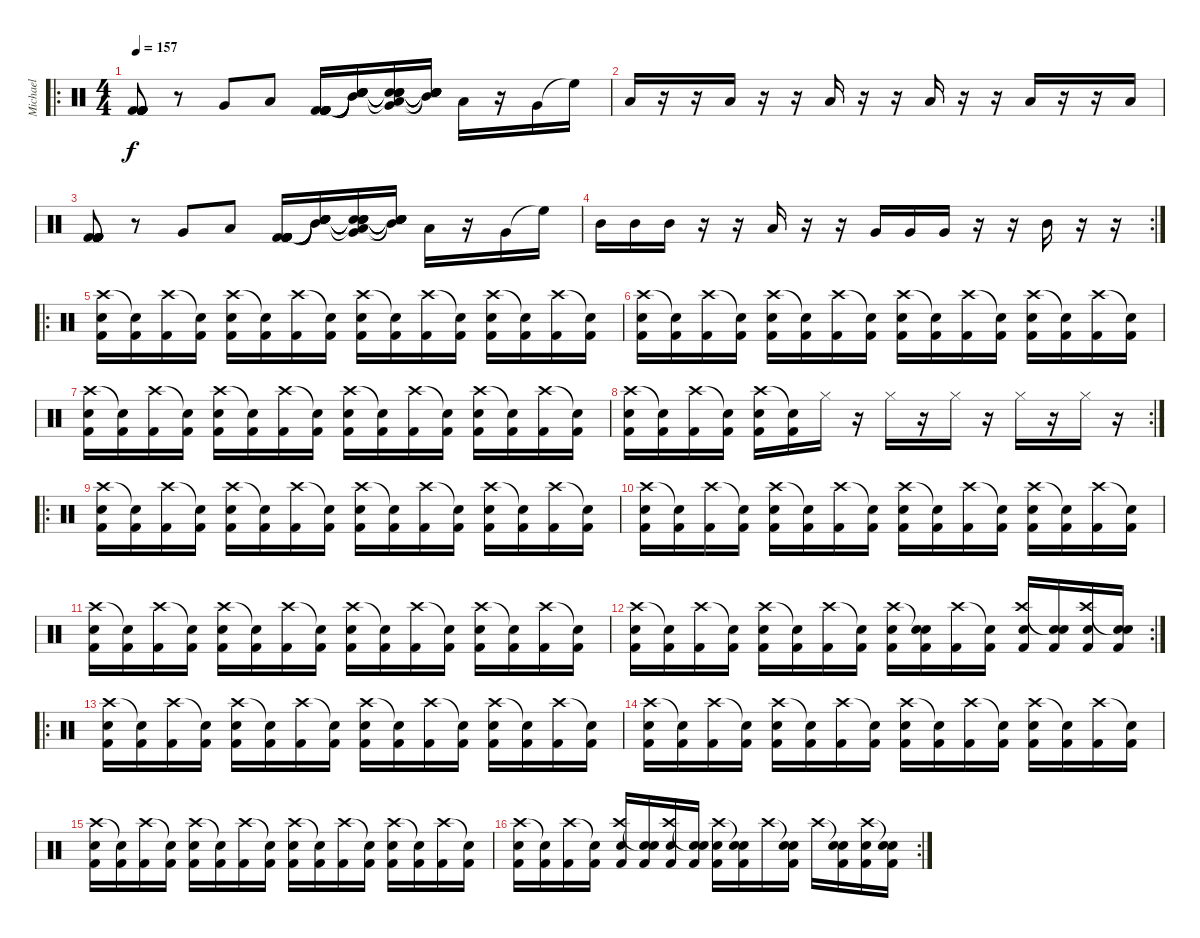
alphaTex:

\track ("Michael" "Michael") {instrument percussion}
\staff {score}
\articulation defaults
\ro
\ts (4 4)
\tempo 157
\clef neutral
\ks c
("Kick (hit) 2" "Kick (hit) 2" "Kick (hit) 2" "Kick (hit) 2" "Kick (hit) 2" "Kick (hit) 2").8{dy f} r.8 "Very Low Tom (hit)".8 "Low Tom (hit)".8 ("Kick (hit) 2" "Kick (hit) 2" "Kick (hit) 2" "Kick (hit) 2" "Kick (hit) 2" "Kick (hit) 2").16 ("Snare (hit)"{t} "Snare (hit)"{t} "Snare (hit)"{t} "Snare (hit)"{t} "Mid Tom (hit)"{t} "Snare (hit)"{t}).16 ("Snare (hit)"{t} "Very Low Tom (hit)" "Snare (hit)"{t} "Snare (hit)"{t} "Low Tom (hit)"{t} "Snare (hit)"{t}).16 ("Snare (hit)"{t} "Snare (hit)"{t} "Snare (hit)"{t} "Snare (hit)"{t} "Mid Tom (hit)"{t} "Snare (hit)"{t}).16 "Low Tom (hit)".16 r.16 "Very Low Tom (hit)".16 "High Floor Tom (hit)"{t}.16 |
"Low Floor Tom (hit)".16 r.16 r.16 "Low Floor Tom (hit)".16 r.16 r.16 "Low Floor Tom (hit)".16 r.16 r.16 "Low Floor Tom (hit)".16 r.16 r.16 "Low Floor Tom (hit)".16 r.16 r.16 "Low Floor Tom (hit)".16 |
("Kick (hit) 2" "Kick (hit) 2" "Kick (hit) 2" "Kick (hit) 2" "Kick (hit) 2" "Kick (hit) 2").8 r.8 "Very Low Tom (hit)".8 "Low Tom (hit)".8 ("Kick (hit) 2" "Kick (hit) 2" "Kick (hit) 2" "Kick (hit) 2" "Kick (hit) 2" "Kick (hit) 2").16 ("Snare (hit)"{t} "Snare (hit)"{t} "Snare (hit)"{t} "Snare (hit)"{t} "Mid Tom (hit)"{t} "Snare (hit)"{t}).16 ("Snare (hit)"{t} "Very Low Tom (hit)" "Snare (hit)"{t} "Snare (hit)"{t} "Low Tom (hit)"{t} "Snare (hit)"{t}).16 ("Snare (hit)"{t} "Snare (hit)"{t} "Snare (hit)"{t} "Snare (hit)"{t} "Mid Tom (hit)"{t} "Snare (hit)"{t}).16 "Low Tom (hit)".16 r.16 "Very Low Tom (hit)".16 "High Floor Tom (hit)"{t}.16 |
\rc 2 "Mid Tom (hit)".16 "Mid Tom (hit)".16 "Mid Tom (hit)".16
r.16 r.16 "Low Tom (hit)".16 r.16 r.16 "Very Low Tom (hit)".16 "Very Low Tom (hit)".16 "Very Low Tom (hit)".16 r.16 r.16 "Mid Tom (hit)".16 r.16 r.16 |
\ro
("Crash high (hit)" "Electric Snare (hit)" "Kick (hit) 2").16 ("Snare (hit)"{t} "Kick (hit) 2").16 ("Crash high (hit)" "Kick (hit) 2").16 ("Snare (hit)"{t} "Kick (hit) 2").16 ("Crash high (hit)" "Electric Snare (hit)" "Kick (hit) 2").16 ("Snare (hit)"{t} "Kick (hit) 2").16 ("Crash high (hit)" "Kick (hit) 2").16 ("Snare (hit)"{t} "Kick (hit) 2").16 ("Crash high (hit)" "Electric Snare (hit)" "Kick (hit) 2").16 ("Snare (hit)"{t} "Kick (hit) 2").16 ("Crash high (hit)" "Kick (hit) 2").16 ("Snare (hit)"{t} "Kick (hit) 2").16 ("Crash high (hit)" "Electric Snare (hit)" "Kick (hit) 2").16 ("Snare (hit)"{t} "Kick (hit) 2").16 ("Crash high (hit)" "Kick (hit) 2").16 ("Snare (hit)"{t} "Kick (hit) 2").16 |
("Crash high (hit)" "Electric Snare (hit)" "Kick (hit) 2").16 ("Snare (hit)"{t} "Kick (hit) 2").16 ("Crash high (hit)" "Kick (hit) 2").16 ("Snare (hit)"{t} "Kick (hit) 2").16 ("Crash high (hit)" "Electric Snare (hit)" "Kick (hit) 2").16 ("Snare (hit)"{t} "Kick (hit) 2").16 ("Crash high (hit)" "Kick (hit) 2").16 ("Snare (hit)"{t} "Kick (hit) 2").16 ("Crash high (hit)" "Electric Snare (hit)" "Kick (hit) 2").16 ("Snare (hit)"{t} "Kick (hit) 2").16 ("Crash high (hit)" "Kick (hit) 2").16 ("Snare (hit)"{t} "Kick (hit) 2").16 ("Crash high (hit)" "Electric Snare (hit)" "Kick (hit) 2").16 ("Snare (hit)"{t} "Kick (hit) 2").16 ("Crash high (hit)" "Kick (hit) 2").16 ("Snare (hit)"{t} "Kick (hit) 2").16 |
("Crash high (hit)" "Electric Snare (hit)" "Kick (hit) 2").16 ("Snare (hit)"{t} "Kick (hit) 2").16 ("Crash high (hit)" "Kick (hit) 2").16 ("Snare (hit)"{t} "Kick (hit) 2").16 ("Crash high (hit)" "Electric Snare (hit)" "Kick (hit) 2").16 ("Snare (hit)"{t} "Kick (hit) 2").16 ("Crash high (hit)" "Kick (hit) 2").16 ("Snare (hit)"{t} "Kick (hit) 2").16 ("Crash high (hit)" "Electric Snare (hit)" "Kick (hit) 2").16 ("Snare (hit)"{t} "Kick (hit) 2").16 ("Crash high (hit)" "Kick (hit) 2").16 ("Snare (hit)"{t} "Kick (hit) 2").16 ("Crash high (hit)" "Electric Snare (hit)" "Kick (hit) 2").16 ("Snare (hit)"{t} "Kick (hit) 2").16 ("Crash high (hit)" "Kick (hit) 2").16 ("Snare (hit)"{t} "Kick (hit) 2").16 |
\rc 2
("Crash high (hit)" "Electric Snare (hit)" "Kick (hit) 2").16 ("Snare (hit)"{t} "Kick (hit) 2").16 ("Crash high (hit)" "Kick (hit) 2").16 ("Snare (hit)"{t} "Kick (hit) 2").16 ("Crash high (hit)" "Electric Snare (hit)" "Kick (hit) 2").16 ("Snare (hit)"{t} "Kick (hit) 2").16 "Hi-Hat (closed)".16 r.16 "Hi-Hat (closed)".16 r.16 "Hi-Hat (closed)".16 r.16 "Hi-Hat (closed)".16 r.16 "Hi-Hat (closed)".16 r.16 |
\ro
("Crash high (hit)" "Electric Snare (hit)" "Kick (hit) 2").16 ("Snare (hit)"{t} "Kick (hit) 2").16 ("Crash high (hit)" "Kick (hit) 2").16 ("Snare (hit)"{t} "Kick (hit) 2").16 ("Crash high (hit)" "Electric Snare (hit)" "Kick (hit) 2").16 ("Snare (hit)"{t} "Kick (hit) 2").16 ("Crash high (hit)" "Kick (hit) 2").16 ("Snare (hit)"{t} "Kick (hit) 2").16 ("Crash high (hit)" "Electric Snare (hit)" "Kick (hit) 2").16 ("Snare (hit)"{t} "Kick (hit) 2").16 ("Crash high (hit)" "Kick (hit) 2").16 ("Snare (hit)"{t} "Kick (hit) 2").16 ("Crash high (hit)" "Electric Snare (hit)" "Kick (hit) 2").16 ("Snare (hit)"{t} "Kick (hit) 2").16 ("Crash high (hit)" "Kick (hit) 2").16 ("Snare (hit)"{t} "Kick (hit) 2").16 |
("Crash high (hit)" "Electric Snare (hit)" "Kick (hit) 2").16 ("Snare (hit)"{t} "Kick (hit) 2").16 ("Crash high (hit)" "Kick (hit) 2").16 ("Snare (hit)"{t} "Kick (hit) 2").16 ("Crash high (hit)" "Electric Snare (hit)" "Kick (hit) 2").16 ("Snare (hit)"{t} "Kick (hit) 2").16 ("Crash high (hit)" "Kick (hit) 2").16 ("Snare (hit)"{t} "Kick (hit) 2").16 ("Crash high (hit)" "Electric Snare (hit)" "Kick (hit) 2").16 ("Snare (hit)"{t} "Kick (hit) 2").16 ("Crash high (hit)" "Kick (hit) 2").16 ("Snare (hit)"{t} "Kick (hit) 2").16 ("Crash high (hit)" "Electric Snare (hit)" "Kick (hit) 2").16 ("Snare (hit)"{t} "Kick (hit) 2").16 ("Crash high (hit)" "Kick (hit) 2").16 ("Snare (hit)"{t} "Kick (hit) 2").16 |
("Crash high (hit)" "Electric Snare (hit)" "Kick (hit) 2").16 ("Snare (hit)"{t} "Kick (hit) 2").16 ("Crash high (hit)" "Kick (hit) 2").16 ("Snare (hit)"{t} "Kick (hit) 2").16 ("Crash high (hit)" "Electric Snare (hit)" "Kick (hit) 2").16 ("Snare (hit)"{t} "Kick (hit) 2").16 ("Crash high (hit)" "Kick (hit) 2").16 ("Snare (hit)"{t} "Kick (hit) 2").16 ("Crash high (hit)" "Electric Snare (hit)" "Kick (hit) 2").16 ("Snare (hit)"{t} "Kick (hit) 2").16 ("Crash high (hit)" "Kick (hit) 2").16 ("Snare (hit)"{t} "Kick (hit) 2").16 ("Crash high (hit)" "Electric Snare (hit)" "Kick (hit) 2").16 ("Snare (hit)"{t} "Kick (hit) 2").16 ("Crash high (hit)" "Kick (hit) 2").16 ("Snare (hit)"{t} "Kick (hit) 2").16 |
\rc 2
("Crash high (hit)" "Electric Snare (hit)" "Kick (hit) 2").16 ("Snare (hit)"{t} "Kick (hit) 2").16 ("Crash high (hit)" "Kick (hit) 2").16 ("Snare (hit)"{t} "Kick (hit) 2").16 ("Crash high (hit)" "Electric Snare (hit)" "Kick (hit) 2").16 ("Snare (hit)"{t} "Kick (hit) 2").16 ("Crash high (hit)" "Kick (hit) 2").16 ("Snare (hit)"{t} "Kick (hit) 2").16 ("Crash high (hit)" "Electric Snare (hit)" "Kick (hit) 2").16 ("Snare (hit)"{t} "Electric Snare (hit)" "Kick (hit) 2").16 ("Crash high (hit)" "Kick (hit) 2").16 ("Snare (hit)"{t} "Kick (hit) 2").16 ("Crash high (hit)" "Electric Snare (hit)" "Kick (hit) 2").16 ("Snare (hit)"{t} "Electric Snare (hit)" "Kick (hit) 2").16 ("Crash high (hit)" "Electric Snare (hit)" "Kick (hit) 2").16 ("Snare (hit)"{t} "Electric Snare (hit)" "Kick (hit) 2").16 |
\ro
("Crash high (hit)" "Electric Snare (hit)" "Kick (hit) 2").16 ("Snare (hit)"{t} "Kick (hit) 2").16 ("Crash high (hit)" "Kick (hit) 2").16 ("Snare (hit)"{t} "Kick (hit) 2").16 ("Crash high (hit)" "Electric Snare (hit)" "Kick (hit) 2").16 ("Snare (hit)"{t} "Kick (hit) 2").16 ("Crash high (hit)" "Kick (hit) 2").16 ("Snare (hit)"{t} "Kick (hit) 2").16 ("Crash high (hit)" "Electric Snare (hit)" "Kick (hit) 2").16 ("Snare (hit)"{t} "Kick (hit) 2").16 ("Crash high (hit)" "Kick (hit) 2").16 ("Snare (hit)"{t} "Kick (hit) 2").16 ("Crash high (hit)" "Electric Snare (hit)" "Kick (hit) 2").16 ("Snare (hit)"{t} "Kick (hit) 2").16 ("Crash high (hit)" "Kick (hit) 2").16 ("Snare (hit)"{t} "Kick (hit) 2").16 |
("Crash high (hit)" "Electric Snare (hit)" "Kick (hit) 2").16 ("Snare (hit)"{t} "Kick (hit) 2").16 ("Crash high (hit)" "Kick (hit) 2").16 ("Snare (hit)"{t} "Kick (hit) 2").16 ("Crash high (hit)" "Electric Snare (hit)" "Kick (hit) 2").16 ("Snare (hit)"{t} "Kick (hit) 2").16 ("Crash high (hit)" "Kick (hit) 2").16 ("Snare (hit)"{t} "Kick (hit) 2").16 ("Crash high (hit)" "Electric Snare (hit)" "Kick (hit) 2").16 ("Snare (hit)"{t} "Kick (hit) 2").16 ("Crash high (hit)" "Kick (hit) 2").16 ("Snare (hit)"{t} "Kick (hit) 2").16 ("Crash high (hit)" "Electric Snare (hit)" "Kick (hit) 2").16 ("Snare (hit)"{t} "Kick (hit) 2").16 ("Crash high (hit)" "Kick (hit) 2").16 ("Snare (hit)"{t} "Kick (hit) 2").16 |
("Crash high (hit)" "Electric Snare (hit)" "Kick (hit) 2").16 ("Snare (hit)"{t} "Kick (hit) 2").16 ("Crash high (hit)" "Kick (hit) 2").16 ("Snare (hit)"{t} "Kick (hit) 2").16 ("Crash high (hit)" "Electric Snare (hit)" "Kick (hit) 2").16 ("Snare (hit)"{t} "Kick (hit) 2").16 ("Crash high (hit)" "Kick (hit) 2").16 ("Snare (hit)"{t} "Kick (hit) 2").16 ("Crash high (hit)" "Electric Snare (hit)" "Kick (hit) 2").16 ("Snare (hit)"{t} "Kick (hit) 2").16 ("Crash high (hit)" "Kick (hit) 2").16 ("Snare (hit)"{t} "Kick (hit) 2").16 ("Crash high (hit)" "Electric Snare (hit)" "Kick (hit) 2").16 ("Snare (hit)"{t} "Kick (hit) 2").16 ("Crash high (hit)" "Kick (hit) 2").16 ("Snare (hit)"{t} "Kick (hit) 2").16 |
\rc 2
("Crash high (hit)" "Electric Snare (hit)" "Kick (hit) 2").16 ("Snare (hit)"{t} "Kick (hit) 2").16 ("Crash high (hit)" "Kick (hit) 2").16 ("Snare (hit)"{t} "Kick (hit) 2").16 ("Crash high (hit)" "Electric Snare (hit)" "Kick (hit) 2").16 ("Snare (hit)"{t} "Electric Snare (hit)" "Kick (hit) 2").16 ("Crash high (hit)" "Electric Snare (hit)" "Kick (hit) 2").16 ("Snare (hit)"{t} "Electric Snare (hit)" "Kick (hit) 2").16 ("Crash high (hit)" "Electric Snare (hit)" "Kick (hit) 2").16 ("Snare (hit)"{t} "Electric Snare (hit)" "Kick (hit) 2").16 "Crash high (hit)".16 ("Snare (hit)"{t} "Electric Snare (hit)" "Kick (hit) 2").16 "Crash high (hit)".16 ("Snare (hit)"{t} "Electric Snare (hit)" "Kick (hit) 2").16 ("Crash high (hit)" "Electric Snare (hit)" "Kick (hit) 2").16 ("Snare (hit)"{t} "Electric Snare (hit)" "Kick (hit) 2").16
